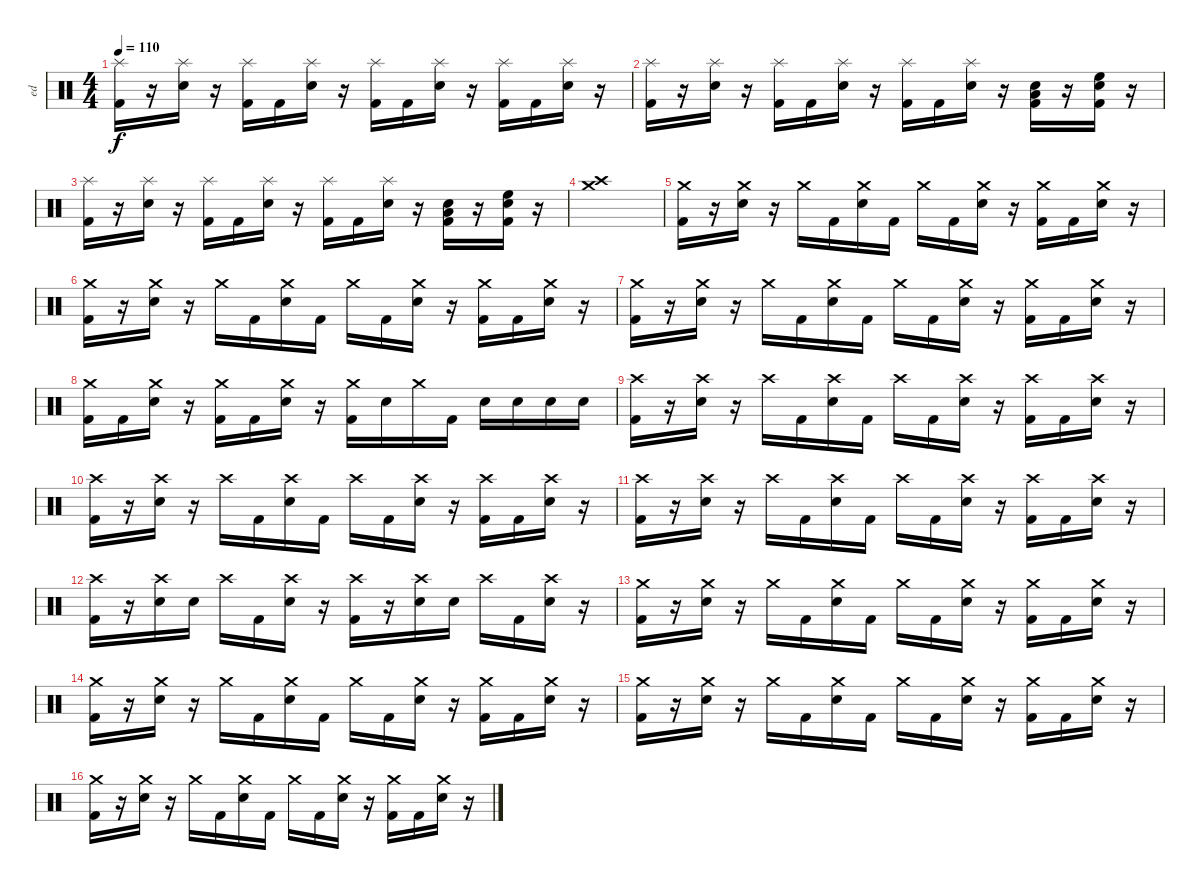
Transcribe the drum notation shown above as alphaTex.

\track ("ed" "ed") {instrument percussion}
\staff {score}
\articulation defaults
\ts (4 4)
\tempo 110
\clef neutral
\ks c
("Splash (hit)" "Kick (hit) 2").16{dy f} r.16 ("Splash (hit)" "Electric Snare (hit)").16 r.16 ("Splash (hit)" "Kick (hit) 2").16 "Kick (hit) 2".16 ("Splash (hit)" "Electric Snare (hit)").16 r.16 ("Splash (hit)" "Kick (hit) 2").16 "Kick (hit) 2".16 ("Splash (hit)" "Electric Snare (hit)").16 r.16 ("Splash (hit)" "Kick (hit) 2").16 "Kick (hit) 2".16 ("Splash (hit)" "Electric Snare (hit)").16 r.16 |
("Splash (hit)" "Kick (hit) 2").16 r.16 ("Splash (hit)" "Electric Snare (hit)").16 r.16 ("Splash (hit)" "Kick (hit) 2").16 "Kick (hit) 2".16 ("Splash (hit)" "Electric Snare (hit)").16 r.16 ("Splash (hit)" "Kick (hit) 2").16 "Kick (hit) 2".16 ("Splash (hit)" "Electric Snare (hit)").16 r.16 ("Low Floor Tom (hit)" "Electric Snare (hit)" "Kick (hit) 2").16 r.16 ("High Floor Tom (hit)" "Electric Snare (hit)" "Kick (hit) 2").16 r.16 |
("Splash (hit)" "Kick (hit) 2").16 r.16 ("Splash (hit)" "Electric Snare (hit)").16 r.16 ("Splash (hit)" "Kick (hit) 2").16 "Kick (hit) 2".16 ("Splash (hit)" "Electric Snare (hit)").16 r.16 ("Splash (hit)" "Kick (hit) 2").16 "Kick (hit) 2".16 ("Splash (hit)" "Electric Snare (hit)").16 r.16 ("Low Floor Tom (hit)" "Electric Snare (hit)" "Kick (hit) 2").16 r.16 ("High Floor Tom (hit)" "Electric Snare (hit)" "Kick (hit) 2").16 r.16 |
("Crash high (hit)" "Crash medium (hit)").1 |
("Crash medium (hit)" "Kick (hit) 2").16 r.16 ("Crash medium (hit)" "Electric Snare (hit)").16 r.16 "Crash medium (hit)".16 "Kick (hit) 2".16 ("Crash medium (hit)" "Electric Snare (hit)").16 "Kick (hit) 2".16 "Crash medium (hit)".16 "Kick (hit) 2".16 ("Crash medium (hit)" "Electric Snare (hit)").16 r.16 ("Crash medium (hit)" "Kick (hit) 2").16 "Kick (hit) 2".16 ("Crash medium (hit)" "Electric Snare (hit)").16 r.16 |
("Crash medium (hit)" "Kick (hit) 2").16 r.16 ("Crash medium (hit)" "Electric Snare (hit)").16 r.16 "Crash medium (hit)".16 "Kick (hit) 2".16 ("Crash medium (hit)" "Electric Snare (hit)").16 "Kick (hit) 2".16 "Crash medium (hit)".16 "Kick (hit) 2".16 ("Crash medium (hit)" "Electric Snare (hit)").16 r.16 ("Crash medium (hit)" "Kick (hit) 2").16 "Kick (hit) 2".16 ("Crash medium (hit)" "Electric Snare (hit)").16 r.16 |
("Crash medium (hit)" "Kick (hit) 2").16 r.16 ("Crash medium (hit)" "Electric Snare (hit)").16 r.16 "Crash medium (hit)".16 "Kick (hit) 2".16 ("Crash medium (hit)" "Electric Snare (hit)").16 "Kick (hit) 2".16 "Crash medium (hit)".16 "Kick (hit) 2".16 ("Crash medium (hit)" "Electric Snare (hit)").16 r.16 ("Crash medium (hit)" "Kick (hit) 2").16 "Kick (hit) 2".16 ("Crash medium (hit)" "Electric Snare (hit)").16 r.16 |
("Crash medium (hit)" "Kick (hit) 2").16 "Kick (hit) 2".16 ("Crash medium (hit)" "Electric Snare (hit)").16 r.16 ("Crash medium (hit)" "Kick (hit) 2").16 "Kick (hit) 2".16 ("Crash medium (hit)" "Electric Snare (hit)").16 r.16 ("Crash medium (hit)" "Kick (hit) 2").16 "Electric Snare (hit)".16 "Crash medium (hit)".16 "Kick (hit) 2".16 "Electric Snare (hit)".16 "Electric Snare (hit)".16 "Electric Snare (hit)".16 "Electric Snare (hit)".16 |
("Crash high (hit)" "Kick (hit) 2").16 r.16 ("Crash high (hit)" "Electric Snare (hit)").16 r.16 "Crash high (hit)".16 "Kick (hit) 2".16 ("Crash high (hit)" "Electric Snare (hit)").16 "Kick (hit) 2".16 "Crash high (hit)".16 "Kick (hit) 2".16 ("Crash high (hit)" "Electric Snare (hit)").16 r.16 ("Crash high (hit)" "Kick (hit) 2").16 "Kick (hit) 2".16 ("Crash high (hit)" "Electric Snare (hit)").16 r.16 |
("Crash high (hit)" "Kick (hit) 2").16 r.16 ("Crash high (hit)" "Electric Snare (hit)").16 r.16 "Crash high (hit)".16 "Kick (hit) 2".16 ("Crash high (hit)" "Electric Snare (hit)").16 "Kick (hit) 2".16 "Crash high (hit)".16 "Kick (hit) 2".16 ("Crash high (hit)" "Electric Snare (hit)").16 r.16 ("Crash high (hit)" "Kick (hit) 2").16 "Kick (hit) 2".16 ("Crash high (hit)" "Electric Snare (hit)").16 r.16 |
("Crash high (hit)" "Kick (hit) 2").16 r.16 ("Crash high (hit)" "Electric Snare (hit)").16 r.16 "Crash high (hit)".16 "Kick (hit) 2".16 ("Crash high (hit)" "Electric Snare (hit)").16 "Kick (hit) 2".16 "Crash high (hit)".16 "Kick (hit) 2".16 ("Crash high (hit)" "Electric Snare (hit)").16 r.16 ("Crash high (hit)" "Kick (hit) 2").16 "Kick (hit) 2".16 ("Crash high (hit)" "Electric Snare (hit)").16 r.16 |
("Crash high (hit)" "Kick (hit) 2").16 r.16 ("Crash high (hit)" "Electric Snare (hit)").16 "Electric Snare (hit)".16 "Crash high (hit)".16 "Kick (hit) 2".16 ("Crash high (hit)" "Electric Snare (hit)").16 r.16 ("Crash high (hit)" "Kick (hit) 2").16 r.16 ("Crash high (hit)" "Electric Snare (hit)").16 "Electric Snare (hit)".16 "Crash high (hit)".16 "Kick (hit) 2".16 ("Crash high (hit)" "Electric Snare (hit)").16 r.16 |
("Crash medium (hit)" "Kick (hit) 2").16 r.16 ("Crash medium (hit)" "Electric Snare (hit)").16 r.16 "Crash medium (hit)".16 "Kick (hit) 2".16 ("Crash medium (hit)" "Electric Snare (hit)").16 "Kick (hit) 2".16 "Crash medium (hit)".16 "Kick (hit) 2".16 ("Crash medium (hit)" "Electric Snare (hit)").16 r.16 ("Crash medium (hit)" "Kick (hit) 2").16 "Kick (hit) 2".16 ("Crash medium (hit)" "Electric Snare (hit)").16 r.16 |
("Crash medium (hit)" "Kick (hit) 2").16 r.16 ("Crash medium (hit)" "Electric Snare (hit)").16 r.16 "Crash medium (hit)".16 "Kick (hit) 2".16 ("Crash medium (hit)" "Electric Snare (hit)").16 "Kick (hit) 2".16 "Crash medium (hit)".16 "Kick (hit) 2".16 ("Crash medium (hit)" "Electric Snare (hit)").16 r.16 ("Crash medium (hit)" "Kick (hit) 2").16 "Kick (hit) 2".16 ("Crash medium (hit)" "Electric Snare (hit)").16 r.16 |
("Crash medium (hit)" "Kick (hit) 2").16 r.16 ("Crash medium (hit)" "Electric Snare (hit)").16 r.16 "Crash medium (hit)".16 "Kick (hit) 2".16 ("Crash medium (hit)" "Electric Snare (hit)").16 "Kick (hit) 2".16 "Crash medium (hit)".16 "Kick (hit) 2".16 ("Crash medium (hit)" "Electric Snare (hit)").16 r.16 ("Crash medium (hit)" "Kick (hit) 2").16 "Kick (hit) 2".16 ("Crash medium (hit)" "Electric Snare (hit)").16 r.16 |
("Crash medium (hit)" "Kick (hit) 2").16 r.16 ("Crash medium (hit)" "Electric Snare (hit)").16 r.16 "Crash medium (hit)".16 "Kick (hit) 2".16 ("Crash medium (hit)" "Electric Snare (hit)").16 "Kick (hit) 2".16 "Crash medium (hit)".16 "Kick (hit) 2".16 ("Crash medium (hit)" "Electric Snare (hit)").16 r.16 ("Crash medium (hit)" "Kick (hit) 2").16 "Kick (hit) 2".16 ("Crash medium (hit)" "Electric Snare (hit)").16 r.16
